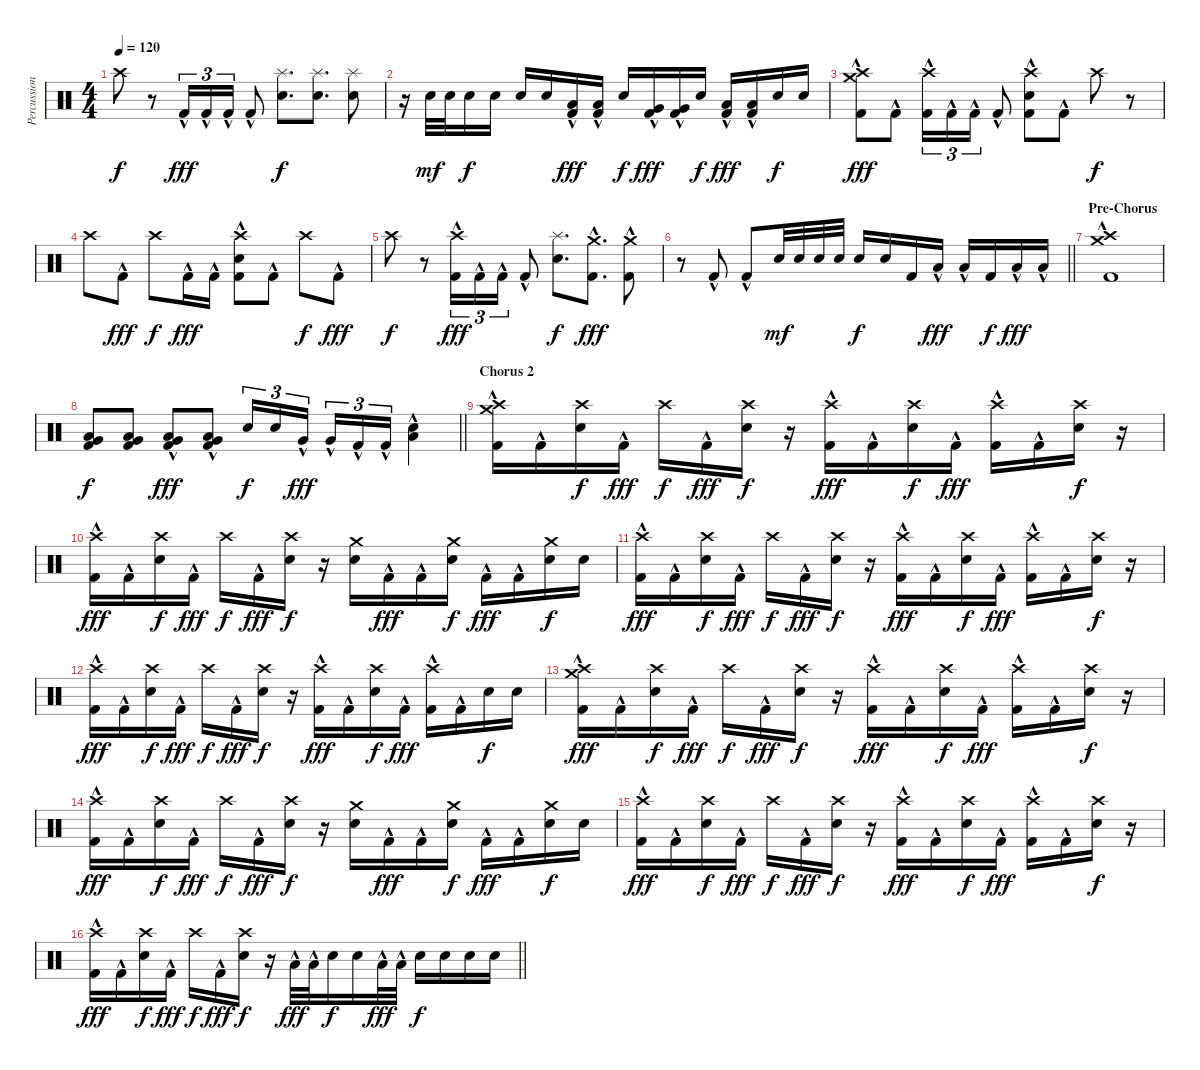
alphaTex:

\track ("Percussion" "Percussion") {instrument percussion}
\staff {score}
\articulation defaults
\ts (4 4)
\tempo 120
\clef neutral
\ks c "Crash high (hit)".8{dy f}
r.8 "Kick (hit) 2"{hac}.16{tu (3 2) dy fff} "Kick (hit) 2"{hac}.16{tu (3 2)} "Kick (hit) 2"{hac}.16{tu (3 2)} "Kick (hit) 2"{hac}.8 ("Splash (hit)" "Snare (hit) 2").8{d dy f} ("Splash (hit)" "Snare (hit) 2").8{d} ("Splash (hit)" "Snare (hit) 2").8 |
r.16 "Snare (hit) 2".32{dy mf} "Snare (hit) 2".32 "Snare (hit) 2".16{dy f} "Snare (hit) 2".16 "Snare (hit) 2".16 "Snare (hit) 2".16 ("Low Tom (hit)"{hac} "Kick (hit) 2"{hac}).16{dy fff} ("Low Tom (hit)"{hac} "Kick (hit) 2"{hac}).16 "Snare (hit) 2".16{dy f} ("Very Low Tom (hit)"{hac} "Kick (hit) 2"{hac}).16{dy fff} ("Very Low Tom (hit)"{hac} "Kick (hit) 2"{hac}).16 "Snare (hit) 2".16{dy f} ("Low Floor Tom (hit)"{hac} "Kick (hit) 2"{hac}).16{dy fff} ("Low Floor Tom (hit)"{hac} "Kick (hit) 2"{hac}).16 "Snare (hit) 2".16{dy f} "Snare (hit) 2".16 |
("Crash high (hit)" "Crash medium (hit)" "Kick (hit) 2"{hac}).8{dy fff} "Kick (hit) 2"{hac}.8 ("Crash high (hit)" "Kick (hit) 2"{hac}).16{tu (3 2)} "Kick (hit) 2"{hac}.16{tu (3 2)} "Kick (hit) 2"{hac}.16{tu (3 2)} "Kick (hit) 2"{hac}.8 ("Crash high (hit)" "Snare (hit) 2" "Kick (hit) 2"{hac}).8 "Kick (hit) 2"{hac}.8 "Crash high (hit)".8{dy f} r.8 |
"Crash high (hit)".8 "Kick (hit) 2"{hac}.8{dy fff} "Crash high (hit)".8{dy f} "Kick (hit) 2"{hac}.16{dy fff} "Kick (hit) 2"{hac}.16 ("Crash high (hit)" "Snare (hit) 2" "Kick (hit) 2"{hac}).8 "Kick (hit) 2"{hac}.8 "Crash high (hit)".8{dy f} "Kick (hit) 2"{hac}.8{dy fff} |
"Crash high (hit)".8{dy f} r.8 ("Crash high (hit)" "Kick (hit) 2"{hac}).16{tu (3 2) dy fff} "Kick (hit) 2"{hac}.16{tu (3 2)} "Kick (hit) 2"{hac}.16{tu (3 2)} "Kick (hit) 2"{hac}.8 ("Splash (hit)" "Snare (hit) 2").8{d dy f} ("Crash medium (hit)" "Kick (hit) 2"{hac}).8{d dy fff} ("Crash medium (hit)" "Kick (hit) 2"{hac}).8 |
\barLineRight lightlight
r.8 "Kick (hit) 2"{hac}.8 "Kick (hit) 2"{hac}.8 "Snare (hit) 2".32{dy mf} "Snare (hit) 2".32 "Snare (hit) 2".32 "Snare (hit) 2".32 "Snare (hit) 2".16{dy f} "Snare (hit) 2".16 "Kick (hit) 2".16 "Low Tom (hit)"{hac}.16{dy fff} "Low Tom (hit)"{hac}.16 "Kick (hit) 2".16{dy f} "Low Floor Tom (hit)"{hac}.16{dy fff} "Low Floor Tom (hit)"{hac}.16 |
\section ("" "Pre-Chorus")
("Crash high (hit)" "Crash medium (hit)" "Kick (hit) 2"{hac}).1 |
\barLineRight lightlight
("Low Floor Tom (hit)" "Very Low Tom (hit)" "Kick (hit) 2").8{dy f} ("Low Floor Tom (hit)" "Very Low Tom (hit)" "Kick (hit) 2").8 ("Low Floor Tom (hit)"{hac} "Very Low Tom (hit)"{hac} "Kick (hit) 2"{hac}).8{dy fff} ("Low Floor Tom (hit)"{hac} "Very Low Tom (hit)"{hac} "Kick (hit) 2"{hac}).8 "Snare (hit) 2".16{tu (3 2) dy f} "Snare (hit) 2".16{tu (3 2)} "Very Low Tom (hit)"{hac}.16{tu (3 2) dy fff beam splitsecondary} "Very Low Tom (hit)"{hac}.16{tu (3 2)} "Kick (hit) 2"{hac}.16{tu (3 2)} "Kick (hit) 2"{hac}.16{tu (3 2)} ("Low Floor Tom (hit)"{hac} "Snare (hit) 2").4 |
\section ("" "Chorus 2")
("Crash high (hit)" "Crash medium (hit)" "Kick (hit) 2"{hac}).16 "Kick (hit) 2"{hac}.16 ("Crash high (hit)" "Snare (hit) 2").16{dy f} "Kick (hit) 2"{hac}.16{dy fff} "Crash high (hit)".16{dy f} "Kick (hit) 2"{hac}.16{dy fff} ("Crash high (hit)" "Snare (hit) 2").16{dy f} r.16 ("Crash high (hit)" "Kick (hit) 2"{hac}).16{dy fff} "Kick (hit) 2"{hac}.16 ("Crash high (hit)" "Snare (hit) 2").16{dy f} "Kick (hit) 2"{hac}.16{dy fff} ("Crash high (hit)" "Kick (hit) 2"{hac}).16 "Kick (hit) 2"{hac}.16 ("Crash high (hit)" "Snare (hit) 2").16{dy f} r.16 |
("Crash high (hit)" "Kick (hit) 2"{hac}).16{dy fff} "Kick (hit) 2"{hac}.16 ("Crash high (hit)" "Snare (hit) 2").16{dy f} "Kick (hit) 2"{hac}.16{dy fff} "Crash high (hit)".16{dy f} "Kick (hit) 2"{hac}.16{dy fff} ("Crash high (hit)" "Snare (hit) 2").16{dy f} r.16 ("Crash medium (hit)" "Snare (hit) 2").16 "Kick (hit) 2"{hac}.16{dy fff} "Kick (hit) 2"{hac}.16 ("Crash medium (hit)" "Snare (hit) 2").16{dy f} "Kick (hit) 2"{hac}.16{dy fff} "Kick (hit) 2"{hac}.16 ("Crash medium (hit)" "Snare (hit) 2").16{dy f} "Snare (hit) 2".16 |
("Crash high (hit)" "Kick (hit) 2"{hac}).16{dy fff} "Kick (hit) 2"{hac}.16 ("Crash high (hit)" "Snare (hit) 2").16{dy f} "Kick (hit) 2"{hac}.16{dy fff} "Crash high (hit)".16{dy f} "Kick (hit) 2"{hac}.16{dy fff} ("Crash high (hit)" "Snare (hit) 2").16{dy f} r.16 ("Crash high (hit)" "Kick (hit) 2"{hac}).16{dy fff} "Kick (hit) 2"{hac}.16 ("Crash high (hit)" "Snare (hit) 2").16{dy f} "Kick (hit) 2"{hac}.16{dy fff} ("Crash high (hit)" "Kick (hit) 2"{hac}).16 "Kick (hit) 2"{hac}.16 ("Crash high (hit)" "Snare (hit) 2").16{dy f} r.16 |
("Crash high (hit)" "Kick (hit) 2"{hac}).16{dy fff} "Kick (hit) 2"{hac}.16 ("Crash high (hit)" "Snare (hit) 2").16{dy f} "Kick (hit) 2"{hac}.16{dy fff} "Crash high (hit)".16{dy f} "Kick (hit) 2"{hac}.16{dy fff} ("Crash high (hit)" "Snare (hit) 2").16{dy f} r.16 ("Crash high (hit)" "Kick (hit) 2"{hac}).16{dy fff} "Kick (hit) 2"{hac}.16 ("Crash high (hit)" "Snare (hit) 2").16{dy f} "Kick (hit) 2"{hac}.16{dy fff} ("Crash high (hit)" "Kick (hit) 2"{hac}).16 "Kick (hit) 2"{hac}.16 "Snare (hit) 2".16{dy f} "Snare (hit) 2".16 |
("Crash high (hit)" "Crash medium (hit)" "Kick (hit) 2"{hac}).16{dy fff} "Kick (hit) 2"{hac}.16 ("Crash high (hit)" "Snare (hit) 2").16{dy f} "Kick (hit) 2"{hac}.16{dy fff} "Crash high (hit)".16{dy f} "Kick (hit) 2"{hac}.16{dy fff} ("Crash high (hit)" "Snare (hit) 2").16{dy f} r.16 ("Crash high (hit)" "Kick (hit) 2"{hac}).16{dy fff} "Kick (hit) 2"{hac}.16 ("Crash high (hit)" "Snare (hit) 2").16{dy f} "Kick (hit) 2"{hac}.16{dy fff} ("Crash high (hit)" "Kick (hit) 2"{hac}).16 "Kick (hit) 2"{hac}.16 ("Crash high (hit)" "Snare (hit) 2").16{dy f} r.16 |
("Crash high (hit)" "Kick (hit) 2"{hac}).16{dy fff} "Kick (hit) 2"{hac}.16 ("Crash high (hit)" "Snare (hit) 2").16{dy f} "Kick (hit) 2"{hac}.16{dy fff} "Crash high (hit)".16{dy f} "Kick (hit) 2"{hac}.16{dy fff} ("Crash high (hit)" "Snare (hit) 2").16{dy f} r.16 ("Crash medium (hit)" "Snare (hit) 2").16 "Kick (hit) 2"{hac}.16{dy fff} "Kick (hit) 2"{hac}.16 ("Crash medium (hit)" "Snare (hit) 2").16{dy f} "Kick (hit) 2"{hac}.16{dy fff} "Kick (hit) 2"{hac}.16 ("Crash medium (hit)" "Snare (hit) 2").16{dy f} "Snare (hit) 2".16 |
("Crash high (hit)" "Kick (hit) 2"{hac}).16{dy fff} "Kick (hit) 2"{hac}.16 ("Crash high (hit)" "Snare (hit) 2").16{dy f} "Kick (hit) 2"{hac}.16{dy fff} "Crash high (hit)".16{dy f} "Kick (hit) 2"{hac}.16{dy fff} ("Crash high (hit)" "Snare (hit) 2").16{dy f} r.16 ("Crash high (hit)" "Kick (hit) 2"{hac}).16{dy fff} "Kick (hit) 2"{hac}.16 ("Crash high (hit)" "Snare (hit) 2").16{dy f} "Kick (hit) 2"{hac}.16{dy fff} ("Crash high (hit)" "Kick (hit) 2"{hac}).16 "Kick (hit) 2"{hac}.16 ("Crash high (hit)" "Snare (hit) 2").16{dy f} r.16 |
\barLineRight lightlight
("Crash high (hit)" "Kick (hit) 2"{hac}).16{dy fff} "Kick (hit) 2"{hac}.16 ("Crash high (hit)" "Snare (hit) 2").16{dy f} "Kick (hit) 2"{hac}.16{dy fff} "Crash high (hit)".16{dy f} "Kick (hit) 2"{hac}.16{dy fff} ("Crash high (hit)" "Snare (hit) 2").16{dy f} r.16 "Low Tom (hit)"{hac}.32{dy fff} "Low Tom (hit)"{hac}.32 "Snare (hit) 2".16{dy f} "Snare (hit) 2".16 "Low Tom (hit)"{hac}.32{dy fff} "Low Tom (hit)"{hac}.32 "Snare (hit) 2".16{dy f} "Snare (hit) 2".16 "Snare (hit) 2".16 "Snare (hit) 2".16
